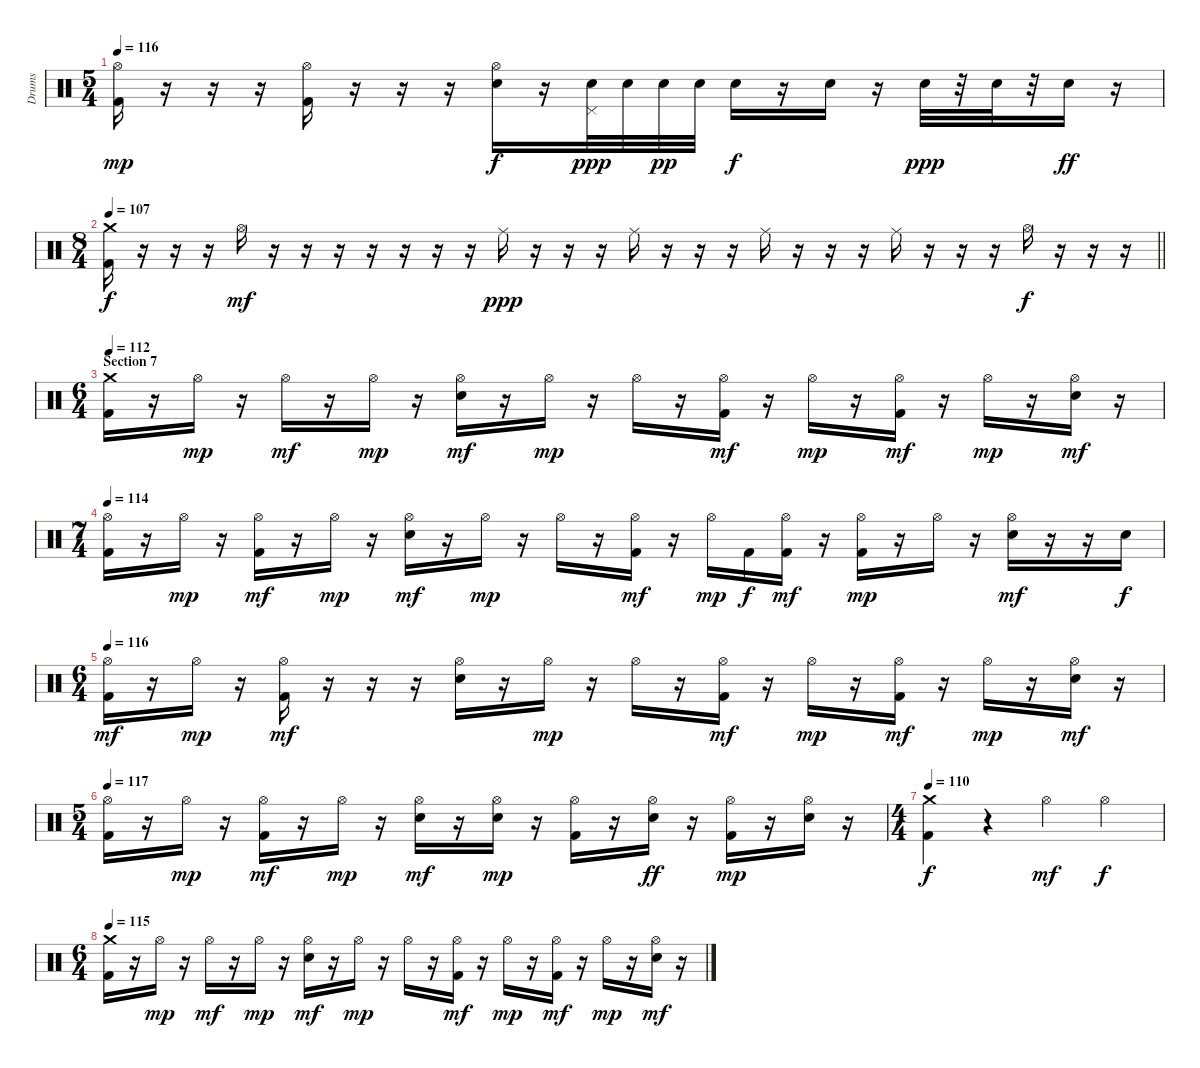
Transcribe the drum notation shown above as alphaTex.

\track ("Drums" "Drums") {instrument percussion}
\staff {score}
\articulation defaults
\ts (5 4)
\tempo 116
\clef neutral
\ks c
("Hi-Hat (open)" "Kick (hit) 2").16{dy mp} r.16 r.16 r.16 ("Hi-Hat (open)" "Kick (hit) 2").16 r.16 r.16 r.16 ("Hi-Hat (open)" "Electric Snare (hit)").16{dy f} r.16 ("Pedal Hi-Hat (hit)" "Electric Snare (hit)").32{dy ppp} "Electric Snare (hit)".32 "Electric Snare (hit)".32{dy pp} "Electric Snare (hit)".32 "Electric Snare (hit)".16{dy f} r.16 "Electric Snare (hit)".16 r.16 "Electric Snare (hit)".32{dy ppp} r.32 "Electric Snare (hit)".32 r.32 "Electric Snare (hit)".16{dy ff} r.16 |
\ts (8 4)
\tempo 107
\barLineRight lightlight
("Crash medium (hit)" "Kick (hit) 2").16{dy f} r.16 r.16 r.16 "Hi-Hat (open)".16{dy mf} r.16 r.16 r.16 r.16 r.16 r.16 r.16 "Ride (middle)".16{dy ppp} r.16 r.16 r.16 "Ride (middle)".16 r.16 r.16 r.16 "Ride (middle)".16 r.16 r.16 r.16 "Ride (middle)".16 r.16 r.16 r.16 "Hi-Hat (open)".16{dy f} r.16 r.16 r.16 |
\ts (6 4)
\section ("" "Section 7")
\tempo 112
("Crash medium (hit)" "Kick (hit) 2").16 r.16 "Hi-Hat (open)".16{dy mp} r.16 "Hi-Hat (open)".16{dy mf} r.16 "Hi-Hat (open)".16{dy mp} r.16 ("Hi-Hat (open)" "Electric Snare (hit)").16{dy mf} r.16 "Hi-Hat (open)".16{dy mp} r.16 "Hi-Hat (open)".16 r.16 ("Hi-Hat (open)" "Kick (hit) 2").16{dy mf} r.16 "Hi-Hat (open)".16{dy mp} r.16 ("Hi-Hat (open)" "Kick (hit) 2").16{dy mf} r.16 "Hi-Hat (open)".16{dy mp} r.16 ("Hi-Hat (open)" "Electric Snare (hit)").16{dy mf} r.16 |
\ts (7 4)
\tempo 114
("Hi-Hat (open)" "Kick (hit) 2").16 r.16 "Hi-Hat (open)".16{dy mp} r.16 ("Hi-Hat (open)" "Kick (hit) 2").16{dy mf} r.16 "Hi-Hat (open)".16{dy mp} r.16 ("Hi-Hat (open)" "Electric Snare (hit)").16{dy mf} r.16 "Hi-Hat (open)".16{dy mp} r.16 "Hi-Hat (open)".16 r.16 ("Hi-Hat (open)" "Kick (hit) 2").16{dy mf} r.16 "Hi-Hat (open)".16{dy mp} "Kick (hit) 2".16{dy f} ("Hi-Hat (open)" "Kick (hit) 2").16{dy mf} r.16 ("Hi-Hat (open)" "Kick (hit) 2").16{dy mp} r.16 "Hi-Hat (open)".16 r.16 ("Hi-Hat (open)" "Electric Snare (hit)").16{dy mf} r.16 r.16 "Electric Snare (hit)".16{dy f} |
\ts (6 4)
\tempo 116
("Hi-Hat (open)" "Kick (hit) 2").16{dy mf} r.16 "Hi-Hat (open)".16{dy mp} r.16 ("Hi-Hat (open)" "Kick (hit) 2").16{dy mf} r.16 r.16 r.16 ("Hi-Hat (open)" "Electric Snare (hit)").16 r.16 "Hi-Hat (open)".16{dy mp} r.16 "Hi-Hat (open)".16 r.16 ("Hi-Hat (open)" "Kick (hit) 2").16{dy mf} r.16 "Hi-Hat (open)".16{dy mp} r.16 ("Hi-Hat (open)" "Kick (hit) 2").16{dy mf} r.16 "Hi-Hat (open)".16{dy mp} r.16 ("Hi-Hat (open)" "Electric Snare (hit)").16{dy mf} r.16 |
\ts (5 4)
\tempo 117
("Hi-Hat (open)" "Kick (hit) 2").16 r.16 "Hi-Hat (open)".16{dy mp} r.16 ("Hi-Hat (open)" "Kick (hit) 2").16{dy mf} r.16 "Hi-Hat (open)".16{dy mp} r.16 ("Hi-Hat (open)" "Electric Snare (hit)").16{dy mf} r.16 ("Hi-Hat (open)" "Electric Snare (hit)").16{dy mp} r.16 ("Hi-Hat (open)" "Kick (hit) 2").16 r.16 ("Hi-Hat (open)" "Electric Snare (hit)").16{dy ff} r.16 ("Hi-Hat (open)" "Kick (hit) 2").16{dy mp} r.16 ("Hi-Hat (open)" "Electric Snare (hit)").16 r.16 |
\ts (4 4)
\tempo 110
("Crash medium (hit)" "Kick (hit) 2").4{dy f} r.4 "Hi-Hat (open)".4{dy mf} "Hi-Hat (open)".4{dy f} |
\ts (6 4)
\tempo 115
("Crash medium (hit)" "Kick (hit) 2").16 r.16 "Hi-Hat (open)".16{dy mp} r.16 "Hi-Hat (open)".16{dy mf} r.16 "Hi-Hat (open)".16{dy mp} r.16 ("Hi-Hat (open)" "Electric Snare (hit)").16{dy mf} r.16 "Hi-Hat (open)".16{dy mp} r.16 "Hi-Hat (open)".16 r.16 ("Hi-Hat (open)" "Kick (hit) 2").16{dy mf} r.16 "Hi-Hat (open)".16{dy mp} r.16 ("Hi-Hat (open)" "Kick (hit) 2").16{dy mf} r.16 "Hi-Hat (open)".16{dy mp} r.16 ("Hi-Hat (open)" "Electric Snare (hit)").16{dy mf} r.16
